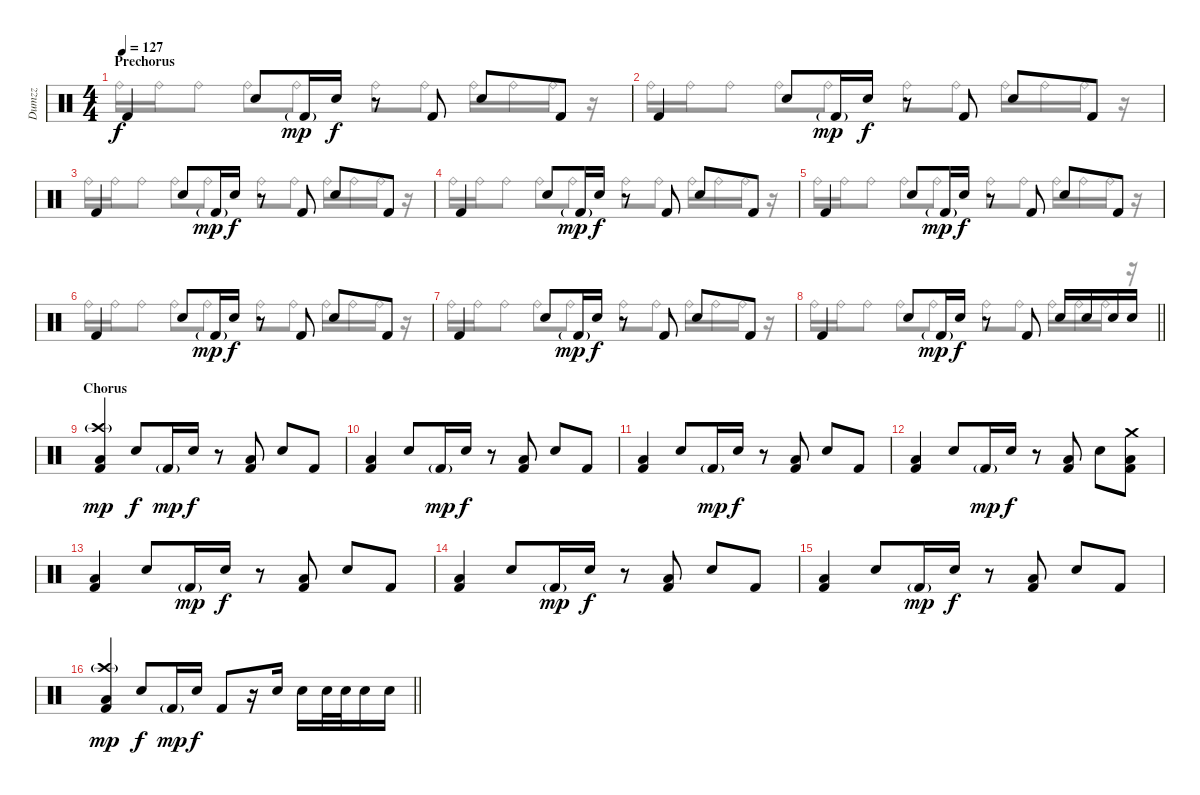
\track ("Dumzz" "Dumzz") {instrument percussion}
\staff {score}
\articulation defaults
\voice
\ts (4 4)
\section ("" "Prechorus")
\tempo 127
\clef neutral
\ks c "Kick (hit) 2".4{dy f} "Snare (hit) 2".8 "Kick (hit) 2"{g}.16{dy mp} "Snare (hit) 2".16{dy f}
r.8 "Kick (hit) 2".8 "Snare (hit) 2".8 "Kick (hit) 2".8 |
"Kick (hit) 2".4 "Snare (hit) 2".8 "Kick (hit) 2"{g}.16{dy mp} "Snare (hit) 2".16{dy f} r.8 "Kick (hit) 2".8 "Snare (hit) 2".8 "Kick (hit) 2".8 |
"Kick (hit) 2".4 "Snare (hit) 2".8 "Kick (hit) 2"{g}.16{dy mp} "Snare (hit) 2".16{dy f} r.8 "Kick (hit) 2".8 "Snare (hit) 2".8 "Kick (hit) 2".8 |
"Kick (hit) 2".4 "Snare (hit) 2".8 "Kick (hit) 2"{g}.16{dy mp} "Snare (hit) 2".16{dy f} r.8 "Kick (hit) 2".8 "Snare (hit) 2".8 "Kick (hit) 2".8 |
"Kick (hit) 2".4 "Snare (hit) 2".8 "Kick (hit) 2"{g}.16{dy mp} "Snare (hit) 2".16{dy f} r.8 "Kick (hit) 2".8 "Snare (hit) 2".8 "Kick (hit) 2".8 |
"Kick (hit) 2".4 "Snare (hit) 2".8 "Kick (hit) 2"{g}.16{dy mp} "Snare (hit) 2".16{dy f} r.8 "Kick (hit) 2".8 "Snare (hit) 2".8 "Kick (hit) 2".8 |
"Kick (hit) 2".4 "Snare (hit) 2".8 "Kick (hit) 2"{g}.16{dy mp} "Snare (hit) 2".16{dy f} r.8 "Kick (hit) 2".8 "Snare (hit) 2".8 "Kick (hit) 2".8 |
\barLineRight lightlight "Kick (hit) 2".4 "Snare (hit) 2".8 "Kick (hit) 2"{g}.16{dy mp} "Snare (hit) 2".16{dy f}
r.8 "Kick (hit) 2".8 "Snare (hit) 2".16 "Snare (hit) 2".16 "Snare (hit) 2".16 "Snare (hit) 2".16 |
\section ("" "Chorus")
("Crash high (hit)"{g} "Low Tom (hit)" "Kick (hit) 2").4{dy mp} "Snare (hit) 2".8{dy f} "Kick (hit) 2"{g}.16{dy mp} "Snare (hit) 2".16{dy f} r.8 ("Low Tom (hit)" "Kick (hit) 2").8 "Snare (hit) 2".8 "Kick (hit) 2".8 |
("Low Tom (hit)" "Kick (hit) 2").4 "Snare (hit) 2".8 "Kick (hit) 2"{g}.16{dy mp} "Snare (hit) 2".16{dy f} r.8 ("Low Tom (hit)" "Kick (hit) 2").8 "Snare (hit) 2".8 "Kick (hit) 2".8 |
("Low Tom (hit)" "Kick (hit) 2").4 "Snare (hit) 2".8 "Kick (hit) 2"{g}.16{dy mp} "Snare (hit) 2".16{dy f} r.8 ("Low Tom (hit)" "Kick (hit) 2").8 "Snare (hit) 2".8 "Kick (hit) 2".8 |
("Low Tom (hit)" "Kick (hit) 2").4 "Snare (hit) 2".8 "Kick (hit) 2"{g}.16{dy mp} "Snare (hit) 2".16{dy f} r.8 ("Low Tom (hit)" "Kick (hit) 2").8 "Snare (hit) 2".8 ("Crash medium (hit)" "Low Tom (hit)" "Kick (hit) 2").8 |
("Low Tom (hit)" "Kick (hit) 2").4 "Snare (hit) 2".8 "Kick (hit) 2"{g}.16{dy mp} "Snare (hit) 2".16{dy f} r.8 ("Low Tom (hit)" "Kick (hit) 2").8 "Snare (hit) 2".8 "Kick (hit) 2".8 |
("Low Tom (hit)" "Kick (hit) 2").4 "Snare (hit) 2".8 "Kick (hit) 2"{g}.16{dy mp} "Snare (hit) 2".16{dy f} r.8 ("Low Tom (hit)" "Kick (hit) 2").8 "Snare (hit) 2".8 "Kick (hit) 2".8 |
("Low Tom (hit)" "Kick (hit) 2").4 "Snare (hit) 2".8 "Kick (hit) 2"{g}.16{dy mp} "Snare (hit) 2".16{dy f} r.8 ("Low Tom (hit)" "Kick (hit) 2").8 "Snare (hit) 2".8 "Kick (hit) 2".8 |
\barLineRight lightlight
("Crash high (hit)"{g} "Low Tom (hit)" "Kick (hit) 2").4{dy mp} "Snare (hit) 2".8{dy f} "Kick (hit) 2"{g}.16{dy mp} "Snare (hit) 2".16{dy f} "Kick (hit) 2".8 r.16 "Snare (hit) 2".16 "Snare (hit) 2".16 "Snare (hit) 2".32 "Snare (hit) 2".32 "Snare (hit) 2".16 "Snare (hit) 2".16
\voice
\clef neutral
\ottava regular
\simile none
\ks c "Ride (bell)".16{dy f} "Ride (bell)".16 "Ride (bell)".8 "Ride (bell)".8 "Ride (bell)".8 "Ride (bell)".8 "Ride (bell)".8 "Ride (bell)".16 "Ride (bell)".16 "Ride (bell)".16
r.16 |
"Ride (bell)".16 "Ride (bell)".16 "Ride (bell)".8 "Ride (bell)".8 "Ride (bell)".8 "Ride (bell)".8 "Ride (bell)".8 "Ride (bell)".16 "Ride (bell)".16 "Ride (bell)".16 r.16 |
"Ride (bell)".16 "Ride (bell)".16 "Ride (bell)".8 "Ride (bell)".8 "Ride (bell)".8 "Ride (bell)".8 "Ride (bell)".8 "Ride (bell)".16 "Ride (bell)".16 "Ride (bell)".16 r.16 |
"Ride (bell)".16 "Ride (bell)".16 "Ride (bell)".8 "Ride (bell)".8 "Ride (bell)".8 "Ride (bell)".8 "Ride (bell)".8 "Ride (bell)".16 "Ride (bell)".16 "Ride (bell)".16 r.16 |
"Ride (bell)".16 "Ride (bell)".16 "Ride (bell)".8 "Ride (bell)".8 "Ride (bell)".8 "Ride (bell)".8 "Ride (bell)".8 "Ride (bell)".16 "Ride (bell)".16 "Ride (bell)".16 r.16 |
"Ride (bell)".16 "Ride (bell)".16 "Ride (bell)".8 "Ride (bell)".8 "Ride (bell)".8 "Ride (bell)".8 "Ride (bell)".8 "Ride (bell)".16 "Ride (bell)".16 "Ride (bell)".16 r.16 |
"Ride (bell)".16 "Ride (bell)".16 "Ride (bell)".8 "Ride (bell)".8 "Ride (bell)".8 "Ride (bell)".8 "Ride (bell)".8 "Ride (bell)".16 "Ride (bell)".16 "Ride (bell)".16 r.16 |
\barLineRight lightlight "Ride (bell)".16 "Ride (bell)".16 "Ride (bell)".8 "Ride (bell)".8 "Ride (bell)".8 "Ride (bell)".8 "Ride (bell)".8 "Ride (bell)".16 "Ride (bell)".16 "Ride (bell)".16
r.16 |
|
|
|
|
|
|
|
\barLineRight lightlight
